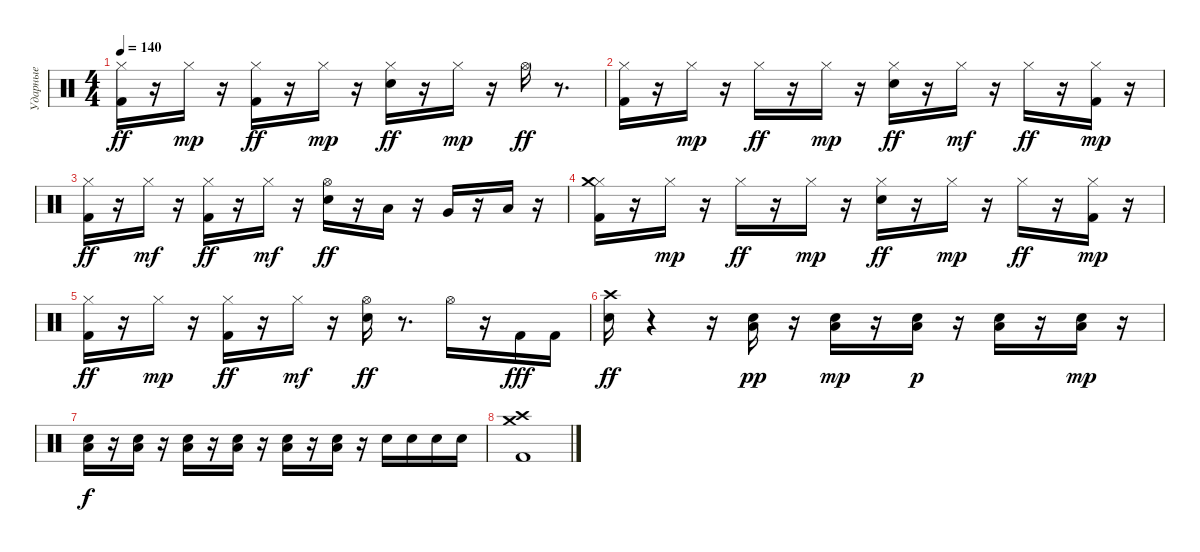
\track ("Ударные" "Ударные") {instrument percussion}
\staff {score}
\articulation defaults
\ts (4 4)
\tempo 140
\clef neutral
\ks c
("Kick (hit) 2" "Hi-Hat (closed)").16{dy ff} r.16 "Hi-Hat (closed)".16{dy mp} r.16 ("Kick (hit) 2" "Hi-Hat (closed)").16{dy ff} r.16 "Hi-Hat (closed)".16{dy mp} r.16 ("Snare (hit) 2" "Hi-Hat (closed)").16{dy ff} r.16 "Hi-Hat (closed)".16{dy mp} r.16 "Hi-Hat (open)".16{dy ff} r.8{d} |
("Kick (hit) 2" "Hi-Hat (closed)").16 r.16 "Hi-Hat (closed)".16{dy mp} r.16 "Hi-Hat (closed)".16{dy ff} r.16 "Hi-Hat (closed)".16{dy mp} r.16 ("Snare (hit) 2" "Hi-Hat (closed)").16{dy ff} r.16 "Hi-Hat (closed)".16{dy mf} r.16 "Hi-Hat (closed)".16{dy ff} r.16 ("Kick (hit) 2" "Hi-Hat (closed)").16{dy mp} r.16 |
("Kick (hit) 2" "Hi-Hat (closed)").16{dy ff} r.16 "Hi-Hat (closed)".16{dy mf} r.16 ("Kick (hit) 2" "Hi-Hat (closed)").16{dy ff} r.16 "Hi-Hat (closed)".16{dy mf} r.16 ("Snare (hit) 2" "Hi-Hat (open)").16{dy ff} r.16 "Low Tom (hit)".16 r.16 "Very Low Tom (hit)".16 r.16 "Low Floor Tom (hit)".16 r.16 |
("Kick (hit) 2" "Hi-Hat (closed)" "Crash medium (hit)").16 r.16 "Hi-Hat (closed)".16{dy mp} r.16 "Hi-Hat (closed)".16{dy ff} r.16 "Hi-Hat (closed)".16{dy mp} r.16 ("Snare (hit) 2" "Hi-Hat (closed)").16{dy ff} r.16 "Hi-Hat (closed)".16{dy mp} r.16 "Hi-Hat (closed)".16{dy ff} r.16 ("Kick (hit) 2" "Hi-Hat (closed)").16{dy mp} r.16 |
("Kick (hit) 2" "Hi-Hat (closed)").16{dy ff} r.16 "Hi-Hat (closed)".16{dy mp} r.16 ("Kick (hit) 2" "Hi-Hat (closed)").16{dy ff} r.16 "Hi-Hat (closed)".16{dy mf} r.16 ("Snare (hit) 2" "Hi-Hat (open)").16{dy ff} r.8{d} "Hi-Hat (open)".16 r.16 "Kick (hit) 2".16{dy fff} "Kick (hit) 2".16 |
("Snare (hit) 2" "Crash high (hit)").16{dy ff} r.4 r.16 ("Snare (hit) 2" "Low Floor Tom (hit)").16{dy pp} r.16 ("Snare (hit) 2" "Low Floor Tom (hit)").16{dy mp} r.16 ("Snare (hit) 2" "Low Floor Tom (hit)").16{dy p} r.16 ("Snare (hit) 2" "Low Floor Tom (hit)").16 r.16 ("Snare (hit) 2" "Low Floor Tom (hit)").16{dy mp} r.16 |
("Snare (hit) 2" "Low Floor Tom (hit)").16{dy f} r.16 ("Snare (hit) 2" "Low Floor Tom (hit)").16 r.16 ("Snare (hit) 2" "Low Floor Tom (hit)").16 r.16 ("Snare (hit) 2" "Low Floor Tom (hit)").16 r.16 ("Snare (hit) 2" "Low Floor Tom (hit)").16 r.16 ("Snare (hit) 2" "Low Floor Tom (hit)").16 r.16 "Snare (hit) 2".16 "Snare (hit) 2".16 "Snare (hit) 2".16 "Snare (hit) 2".16 |
("Crash high (hit)" "Kick (hit) 2" "Crash medium (hit)").1
